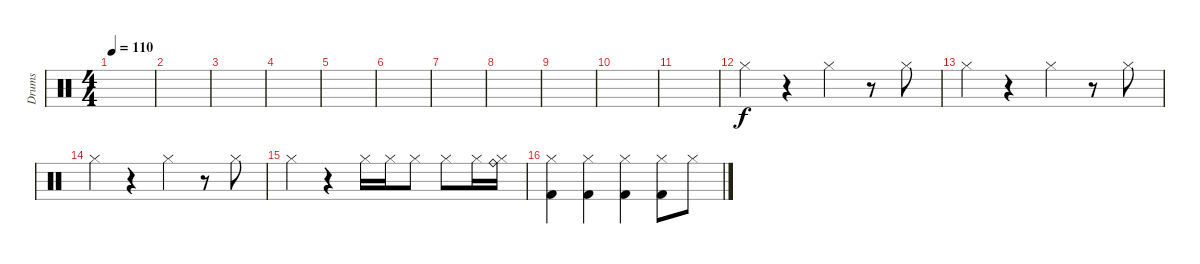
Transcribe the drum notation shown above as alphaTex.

\track ("Drums" "Drums") {instrument percussion}
\staff {score}
\articulation defaults
\ts (4 4)
\tempo 110
\clef neutral
\ks c
|
|
|
|
|
|
|
|
|
|
|
"Hi-Hat (closed)".4 r.4 "Hi-Hat (closed)".4 r.8 "Hi-Hat (closed)".8 |
"Hi-Hat (closed)".4 r.4 "Hi-Hat (closed)".4 r.8 "Hi-Hat (closed)".8 |
"Hi-Hat (closed)".4 r.4 "Hi-Hat (closed)".4 r.8 "Hi-Hat (closed)".8 |
"Hi-Hat (closed)".4 r.4 "Hi-Hat (closed)".16 "Hi-Hat (closed)".16 "Hi-Hat (closed)".8 "Hi-Hat (closed)".8 "Hi-Hat (closed)".16 ("Hi-Hat (closed)" "Ride (bell)").16 |
("Hi-Hat (closed)" "Kick (hit) 2").4 ("Hi-Hat (closed)" "Kick (hit) 2").4 ("Hi-Hat (closed)" "Kick (hit) 2").4 ("Hi-Hat (closed)" "Kick (hit) 2").8 "Hi-Hat (closed)".8
